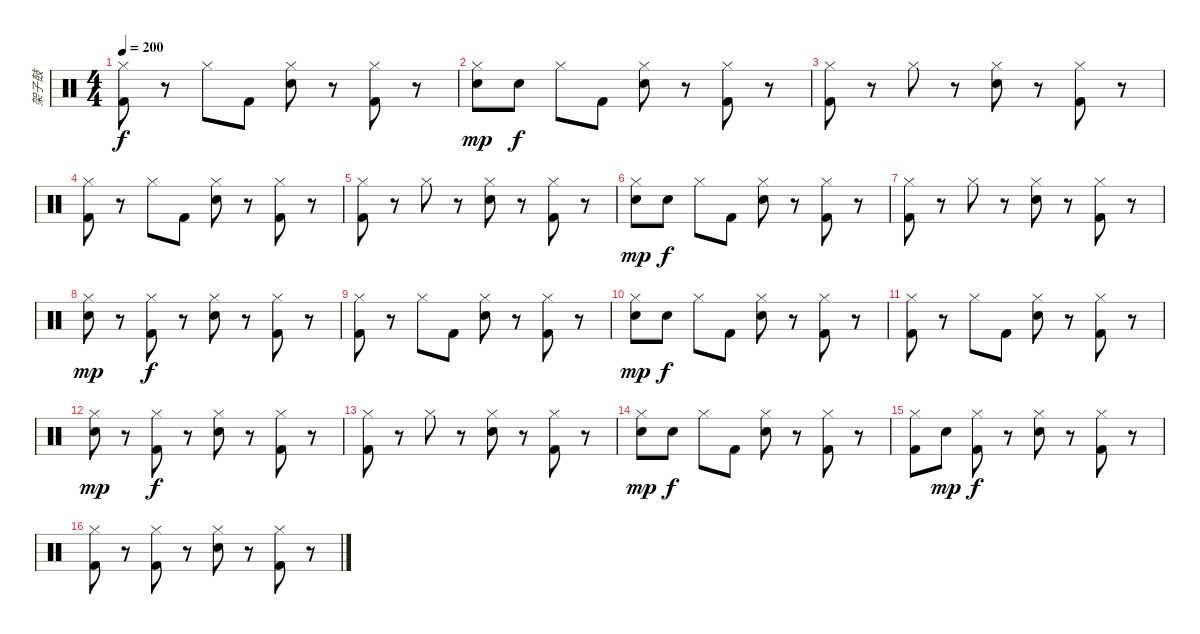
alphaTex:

\track ("架子鼓" "架子鼓") {instrument percussion}
\staff {score}
\articulation defaults
\ts (4 4)
\tempo 200
\clef neutral
\ks c
("Kick (hit) 2" "Hi-Hat (closed)").8{dy f} r.8 "Hi-Hat (closed)".8 "Kick (hit) 2".8 ("Snare (hit) 2" "Hi-Hat (closed)").8 r.8 ("Hi-Hat (closed)" "Kick (hit) 2").8 r.8 |
("Snare (hit) 2" "Hi-Hat (closed)").8{dy mp} "Snare (hit) 2".8{dy f} "Hi-Hat (closed)".8 "Kick (hit) 2".8 ("Snare (hit) 2" "Hi-Hat (closed)").8 r.8 ("Kick (hit) 2" "Hi-Hat (closed)").8 r.8 |
("Kick (hit) 2" "Hi-Hat (closed)").8 r.8 "Hi-Hat (closed)".8 r.8 ("Snare (hit) 2" "Hi-Hat (closed)").8 r.8 ("Hi-Hat (closed)" "Kick (hit) 2").8 r.8 |
("Kick (hit) 2" "Hi-Hat (closed)").8 r.8 "Hi-Hat (closed)".8 "Kick (hit) 2".8 ("Snare (hit) 2" "Hi-Hat (closed)").8 r.8 ("Kick (hit) 2" "Hi-Hat (closed)").8 r.8 |
("Kick (hit) 2" "Hi-Hat (closed)").8 r.8 "Hi-Hat (closed)".8 r.8 ("Snare (hit) 2" "Hi-Hat (closed)").8 r.8 ("Hi-Hat (closed)" "Kick (hit) 2").8 r.8 |
("Snare (hit) 2" "Hi-Hat (closed)").8{dy mp} "Snare (hit) 2".8{dy f} "Hi-Hat (closed)".8 "Kick (hit) 2".8 ("Snare (hit) 2" "Hi-Hat (closed)").8 r.8 ("Kick (hit) 2" "Hi-Hat (closed)").8 r.8 |
("Kick (hit) 2" "Hi-Hat (closed)").8 r.8 "Hi-Hat (closed)".8 r.8 ("Snare (hit) 2" "Hi-Hat (closed)").8 r.8 ("Hi-Hat (closed)" "Kick (hit) 2").8 r.8 |
("Snare (hit) 2" "Hi-Hat (closed)").8{dy mp} r.8 ("Hi-Hat (closed)" "Kick (hit) 2").8{dy f} r.8 ("Snare (hit) 2" "Hi-Hat (closed)").8 r.8 ("Kick (hit) 2" "Hi-Hat (closed)").8 r.8 |
("Kick (hit) 2" "Hi-Hat (closed)").8 r.8 "Hi-Hat (closed)".8 "Kick (hit) 2".8 ("Snare (hit) 2" "Hi-Hat (closed)").8 r.8 ("Hi-Hat (closed)" "Kick (hit) 2").8 r.8 |
("Snare (hit) 2" "Hi-Hat (closed)").8{dy mp} "Snare (hit) 2".8{dy f} "Hi-Hat (closed)".8 "Kick (hit) 2".8 ("Snare (hit) 2" "Hi-Hat (closed)").8 r.8 ("Kick (hit) 2" "Hi-Hat (closed)").8 r.8 |
("Kick (hit) 2" "Hi-Hat (closed)").8 r.8 "Hi-Hat (closed)".8 "Kick (hit) 2".8 ("Snare (hit) 2" "Hi-Hat (closed)").8 r.8 ("Hi-Hat (closed)" "Kick (hit) 2").8 r.8 |
("Snare (hit) 2" "Hi-Hat (closed)").8{dy mp} r.8 ("Hi-Hat (closed)" "Kick (hit) 2").8{dy f} r.8 ("Snare (hit) 2" "Hi-Hat (closed)").8 r.8 ("Kick (hit) 2" "Hi-Hat (closed)").8 r.8 |
("Kick (hit) 2" "Hi-Hat (closed)").8 r.8 "Hi-Hat (closed)".8 r.8 ("Snare (hit) 2" "Hi-Hat (closed)").8 r.8 ("Hi-Hat (closed)" "Kick (hit) 2").8 r.8 |
("Snare (hit) 2" "Hi-Hat (closed)").8{dy mp} "Snare (hit) 2".8{dy f} "Hi-Hat (closed)".8 "Kick (hit) 2".8 ("Snare (hit) 2" "Hi-Hat (closed)").8 r.8 ("Kick (hit) 2" "Hi-Hat (closed)").8 r.8 |
("Kick (hit) 2" "Hi-Hat (closed)").8 "Snare (hit) 2".8{dy mp} ("Hi-Hat (closed)" "Kick (hit) 2").8{dy f} r.8 ("Snare (hit) 2" "Hi-Hat (closed)").8 r.8 ("Hi-Hat (closed)" "Kick (hit) 2").8 r.8 |
("Hi-Hat (closed)" "Kick (hit) 2").8 r.8 ("Hi-Hat (closed)" "Kick (hit) 2").8 r.8 ("Snare (hit) 2" "Hi-Hat (closed)").8 r.8 ("Kick (hit) 2" "Hi-Hat (closed)").8 r.8
